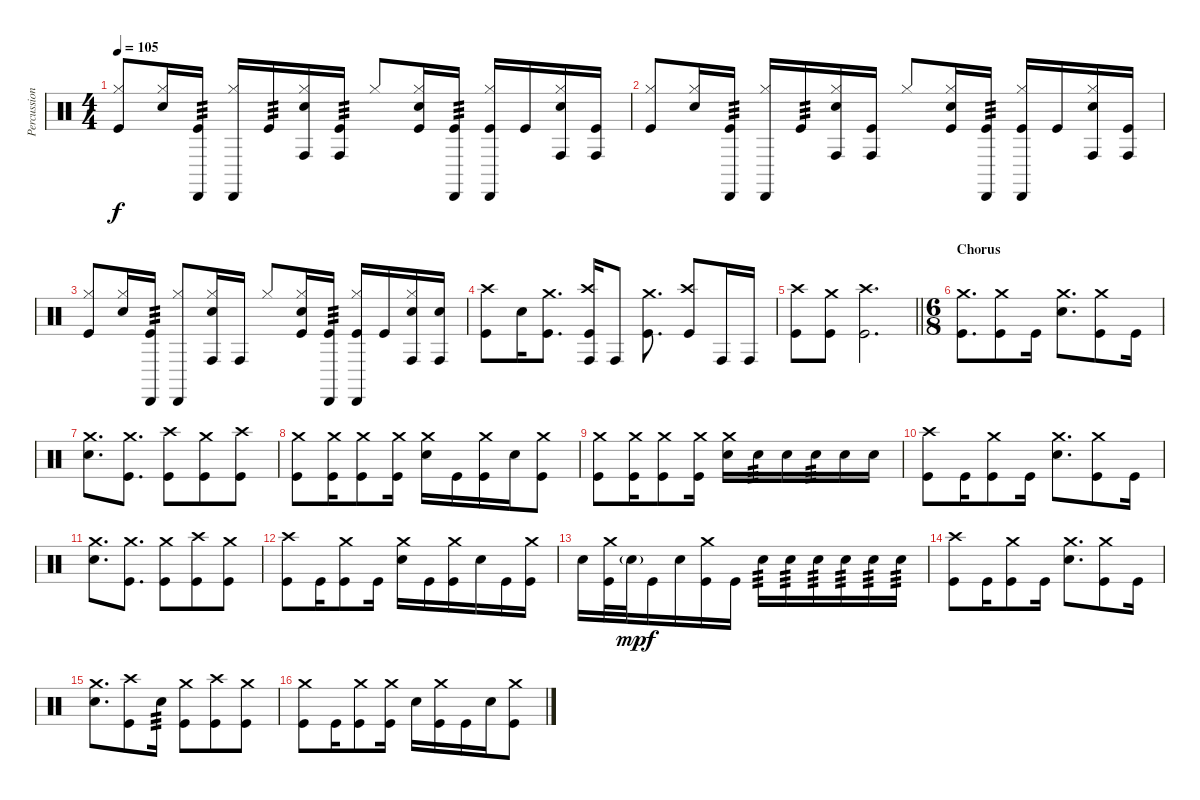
\track ("Percussion" "Percussion") {instrument percussion}
\staff {score}
\articulation defaults
\ts (4 4)
\tempo 105
\clef neutral
\ks c
("Hi-Hat (closed)" "Kick (hit)").8{dy f} ("Hi-Hat (closed)" "Snare (hit) 2").16 ("Cabasa (hit)" "Kick (hit)").16{tp 3} ("Hi-Hat (closed)" "Cabasa (hit)").16 "Kick (hit)".16{tp 3} ("Hi-Hat (closed)" "Snare (hit) 2" "Conga high (hit)").16 ("Conga high (hit)" "Kick (hit)").16{tp 3} "Hi-Hat (closed)".8 ("Hi-Hat (closed)" "Snare (hit) 2" "Kick (hit)").16 ("Cabasa (hit)" "Kick (hit)").16{tp 3} ("Hi-Hat (closed)" "Cabasa (hit)" "Kick (hit)").16 "Kick (hit)".16 ("Hi-Hat (closed)" "Snare (hit) 2" "Conga high (hit)").16 ("Conga high (hit)" "Kick (hit)").16 |
("Hi-Hat (closed)" "Kick (hit)").8 ("Hi-Hat (closed)" "Snare (hit) 2").16 ("Cabasa (hit)" "Kick (hit)").16{tp 3} ("Hi-Hat (closed)" "Cabasa (hit)").16 "Kick (hit)".16{tp 3} ("Hi-Hat (closed)" "Snare (hit) 2" "Conga high (hit)").16 ("Conga high (hit)" "Kick (hit)").16 "Hi-Hat (closed)".8 ("Hi-Hat (closed)" "Snare (hit) 2" "Kick (hit)").16 ("Cabasa (hit)" "Kick (hit)").16{tp 3} ("Hi-Hat (closed)" "Cabasa (hit)" "Kick (hit)").16 "Kick (hit)".16 ("Hi-Hat (closed)" "Snare (hit) 2" "Conga high (hit)").16 ("Conga high (hit)" "Kick (hit)").16 |
("Hi-Hat (closed)" "Kick (hit)").8 ("Hi-Hat (closed)" "Snare (hit) 2").16 ("Cabasa (hit)" "Kick (hit)").16{tp 3} ("Hi-Hat (closed)" "Cabasa (hit)").8 ("Hi-Hat (closed)" "Snare (hit) 2" "Conga high (hit)").16 "Conga high (hit)".16 "Hi-Hat (closed)".8 ("Hi-Hat (closed)" "Snare (hit) 2" "Kick (hit)").16 ("Cabasa (hit)" "Kick (hit)").16{tp 3} ("Hi-Hat (closed)" "Cabasa (hit)" "Kick (hit)").16 "Kick (hit)".16 ("Hi-Hat (closed)" "Snare (hit) 2" "Conga high (hit)").16 ("Snare (hit) 2" "Conga high (hit)").16 |
("Crash high (hit)" "Kick (hit)").8 "Snare (hit) 2".16 ("Crash medium (hit)" "Kick (hit)").8{d} ("Crash high (hit)" "Conga high (hit)" "Kick (hit)").16 "Conga high (hit)".8 ("Crash medium (hit)" "Kick (hit)").8{d} ("Crash high (hit)" "Kick (hit)").8 "Conga high (hit)".16 "Conga high (hit)".16 |
\barLineRight lightlight
("Crash high (hit)" "Kick (hit)").8 ("Crash medium (hit)" "Kick (hit)").8 ("Crash high (hit)" "Kick (hit)").2{d} |
\ts (6 8)
\section ("" "Chorus")
("Crash medium (hit)" "Kick (hit)").8{d} ("Crash medium (hit)" "Kick (hit)").8 "Kick (hit)".16 ("Crash medium (hit)" "Snare (hit) 2").8{d} ("Crash medium (hit)" "Kick (hit)").8 "Kick (hit)".16 |
("Crash medium (hit)" "Snare (hit) 2").8{d} ("Crash medium (hit)" "Kick (hit)").8{d} ("Crash high (hit)" "Kick (hit)").8 ("Crash medium (hit)" "Kick (hit)").8 ("Crash high (hit)" "Kick (hit)").8 |
("Crash medium (hit)" "Kick (hit)").8 ("Crash medium (hit)" "Kick (hit)").16 ("Crash medium (hit)" "Kick (hit)").8 ("Crash medium (hit)" "Kick (hit)").16 ("Crash medium (hit)" "Snare (hit) 2").16 "Kick (hit)".16 ("Crash medium (hit)" "Kick (hit)").16 "Snare (hit) 2".16 ("Crash medium (hit)" "Kick (hit)").8 |
("Crash medium (hit)" "Kick (hit)").8 ("Crash medium (hit)" "Kick (hit)").16 ("Crash medium (hit)" "Kick (hit)").8 ("Crash medium (hit)" "Kick (hit)").16 ("Crash medium (hit)" "Snare (hit) 2").16 "Snare (hit) 2".16{tp 3} "Snare (hit) 2".16 "Snare (hit) 2".16{tp 3} "Snare (hit) 2".16 "Snare (hit) 2".16 |
("Crash high (hit)" "Kick (hit)").8 "Kick (hit)".16 ("Crash medium (hit)" "Kick (hit)").8 "Kick (hit)".16 ("Crash medium (hit)" "Snare (hit) 2").8{d} ("Crash medium (hit)" "Kick (hit)").8 "Kick (hit)".16 |
("Crash medium (hit)" "Snare (hit) 2").8{d} ("Crash medium (hit)" "Kick (hit)").8{d} ("Crash medium (hit)" "Kick (hit)").8 ("Crash high (hit)" "Kick (hit)").8 ("Crash medium (hit)" "Kick (hit)").8 |
("Crash high (hit)" "Kick (hit)").8 "Kick (hit)".16 ("Crash medium (hit)" "Kick (hit)").8 "Kick (hit)".16 ("Crash medium (hit)" "Snare (hit) 2").16 "Kick (hit)".16 ("Crash medium (hit)" "Kick (hit)").16 "Snare (hit) 2".16 "Kick (hit)".16 ("Crash medium (hit)" "Kick (hit)").16 |
"Snare (hit) 2".16 ("Crash medium (hit)" "Kick (hit)").32 "Snare (hit) 2"{g}.32{dy mp} "Kick (hit)".16{dy f} "Snare (hit) 2".16 ("Crash medium (hit)" "Kick (hit)").16 "Kick (hit)".16 "Snare (hit) 2".16{tp 3} "Snare (hit) 2".16{tp 3} "Snare (hit) 2".16{tp 3} "Snare (hit) 2".16{tp 3} "Snare (hit) 2".16{tp 3} "Snare (hit) 2".16{tp 3} |
("Crash high (hit)" "Kick (hit)").8 "Kick (hit)".16 ("Crash medium (hit)" "Kick (hit)").8 "Kick (hit)".16 ("Crash medium (hit)" "Snare (hit) 2").8{d} ("Crash medium (hit)" "Kick (hit)").8 "Kick (hit)".16 |
("Crash medium (hit)" "Snare (hit) 2").8{d} ("Crash high (hit)" "Kick (hit)").8 "Snare (hit) 2".16{tp 3} ("Crash medium (hit)" "Kick (hit)").8 ("Crash high (hit)" "Kick (hit)").8 ("Crash medium (hit)" "Kick (hit)").8 |
("Crash medium (hit)" "Kick (hit)").8 "Kick (hit)".16 ("Crash medium (hit)" "Kick (hit)").8 ("Crash medium (hit)" "Kick (hit)").16 "Snare (hit) 2".16 ("Crash medium (hit)" "Kick (hit)").16 "Kick (hit)".16 "Snare (hit) 2".16 ("Crash medium (hit)" "Kick (hit)").8
